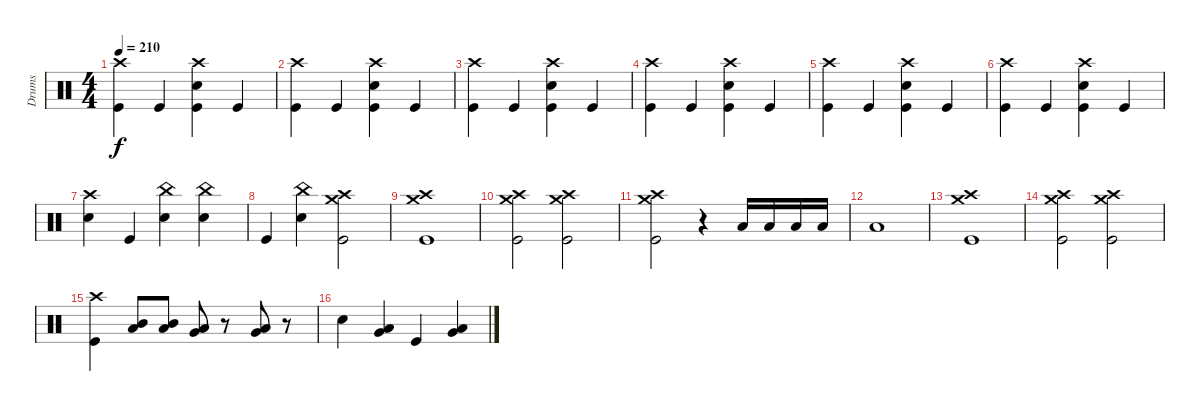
\track ("Drums" "Drums") {instrument percussion}
\staff {score}
\articulation defaults
\ts (4 4)
\tempo 210
\clef neutral
\ks c
("Crash high (hit)" "Kick (hit)").4{dy f} "Kick (hit)".4 ("Crash high (hit)" "Snare (hit) 2" "Kick (hit)").4 "Kick (hit)".4 |
("Crash high (hit)" "Kick (hit)").4 "Kick (hit)".4 ("Crash high (hit)" "Snare (hit) 2" "Kick (hit)").4 "Kick (hit)".4 |
("Crash high (hit)" "Kick (hit)").4 "Kick (hit)".4 ("Crash high (hit)" "Snare (hit) 2" "Kick (hit)").4 "Kick (hit)".4 |
("Crash high (hit)" "Kick (hit)").4 "Kick (hit)".4 ("Crash high (hit)" "Snare (hit) 2" "Kick (hit)").4 "Kick (hit)".4 |
("Crash high (hit)" "Kick (hit)").4 "Kick (hit)".4 ("Crash high (hit)" "Snare (hit) 2" "Kick (hit)").4 "Kick (hit)".4 |
("Crash high (hit)" "Kick (hit)").4 "Kick (hit)".4 ("Crash high (hit)" "Snare (hit) 2" "Kick (hit)").4 "Kick (hit)".4 |
("Crash high (hit)" "Snare (hit) 2").4 "Kick (hit)".4 ("China (hit)" "Snare (hit) 2").4 ("China (hit)" "Snare (hit) 2").4 |
"Kick (hit)".4 ("China (hit)" "Snare (hit) 2").4 ("Crash high (hit)" "Crash medium (hit)" "Kick (hit)").2 |
("Crash high (hit)" "Crash medium (hit)" "Kick (hit)").1 |
("Crash high (hit)" "Crash medium (hit)" "Kick (hit)").2 ("Crash high (hit)" "Crash medium (hit)" "Kick (hit)").2 |
("Crash high (hit)" "Crash medium (hit)" "Kick (hit)").2 r.4 "Low Floor Tom (hit)".16 "Low Floor Tom (hit)".16 "Low Floor Tom (hit)".16 "Low Floor Tom (hit)".16 |
"Low Floor Tom (hit)".1 |
("Crash high (hit)" "Crash medium (hit)" "Kick (hit)").1 |
("Crash high (hit)" "Crash medium (hit)" "Kick (hit)").2 ("Crash high (hit)" "Crash medium (hit)" "Kick (hit)").2 |
("Crash high (hit)" "Kick (hit)").4 ("Mid Tom (hit)" "Low Tom (hit)").8 ("Mid Tom (hit)" "Low Tom (hit)").8 ("Low Tom (hit)" "Very Low Tom (hit)").8 r.8 ("Very Low Tom (hit)" "Low Floor Tom (hit)").8 r.8 |
"Snare (hit) 2".4 ("Low Tom (hit)" "Very Low Tom (hit)").4 "Kick (hit)".4 ("Low Tom (hit)" "Very Low Tom (hit)").4
